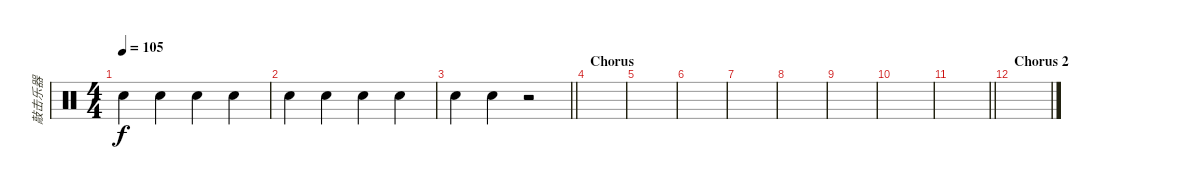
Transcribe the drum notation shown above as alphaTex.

\track ("敲击乐器" "敲击乐器") {instrument percussion}
\staff {score}
\articulation defaults
\ts (4 4)
\tempo 105
\clef neutral
\ks c "Hand Clap (hit)".4{dy f} "Hand Clap (hit)".4 "Hand Clap (hit)".4 "Hand Clap (hit)".4
|
"Hand Clap (hit)".4 "Hand Clap (hit)".4 "Hand Clap (hit)".4 "Hand Clap (hit)".4 |
\barLineRight lightlight "Hand Clap (hit)".4 "Hand Clap (hit)".4
r.2 |
\section ("" "Chorus")
|
|
|
|
|
|
|
\barLineRight lightlight
|
\section ("" "Chorus 2")
